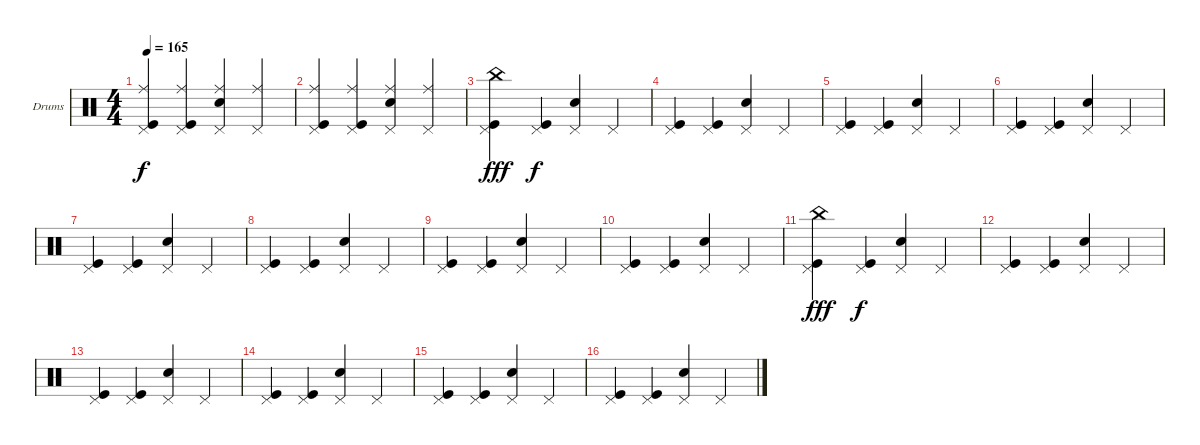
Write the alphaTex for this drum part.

\bracketExtendMode groupsimilarinstruments
\firstSystemTrackNameOrientation horizontal
\otherSystemsTrackNameOrientation horizontal
\track ("Drumkit" "Drums") {instrument percussion}
\staff {score}
\articulation defaults
\ts (4 4)
\tempo 165
\clef neutral
\ks c
("Pedal Hi-Hat (hit)" "Kick (hit)" "Ride (middle)").4{dy f} ("Pedal Hi-Hat (hit)" "Kick (hit)" "Ride (middle)").4 ("Pedal Hi-Hat (hit)" "Snare (hit) 2" "Ride (middle)").4 ("Pedal Hi-Hat (hit)" "Ride (middle)").4 |
("Pedal Hi-Hat (hit)" "Kick (hit)" "Ride (middle)").4 ("Pedal Hi-Hat (hit)" "Kick (hit)" "Ride (middle)").4 ("Pedal Hi-Hat (hit)" "Snare (hit) 2" "Ride (middle)").4 ("Pedal Hi-Hat (hit)" "Ride (middle)").4 |
("Pedal Hi-Hat (hit)" "Kick (hit)" "China (hit)").4{dy fff} ("Pedal Hi-Hat (hit)" "Kick (hit)").4{dy f} ("Pedal Hi-Hat (hit)" "Snare (hit) 2").4 "Pedal Hi-Hat (hit)".4 |
("Pedal Hi-Hat (hit)" "Kick (hit)").4 ("Pedal Hi-Hat (hit)" "Kick (hit)").4 ("Pedal Hi-Hat (hit)" "Snare (hit) 2").4 "Pedal Hi-Hat (hit)".4 |
("Pedal Hi-Hat (hit)" "Kick (hit)").4 ("Pedal Hi-Hat (hit)" "Kick (hit)").4 ("Pedal Hi-Hat (hit)" "Snare (hit) 2").4 "Pedal Hi-Hat (hit)".4 |
("Pedal Hi-Hat (hit)" "Kick (hit)").4 ("Pedal Hi-Hat (hit)" "Kick (hit)").4 ("Pedal Hi-Hat (hit)" "Snare (hit) 2").4 "Pedal Hi-Hat (hit)".4 |
("Pedal Hi-Hat (hit)" "Kick (hit)").4 ("Pedal Hi-Hat (hit)" "Kick (hit)").4 ("Pedal Hi-Hat (hit)" "Snare (hit) 2").4 "Pedal Hi-Hat (hit)".4 |
("Pedal Hi-Hat (hit)" "Kick (hit)").4 ("Pedal Hi-Hat (hit)" "Kick (hit)").4 ("Pedal Hi-Hat (hit)" "Snare (hit) 2").4 "Pedal Hi-Hat (hit)".4 |
("Pedal Hi-Hat (hit)" "Kick (hit)").4 ("Pedal Hi-Hat (hit)" "Kick (hit)").4 ("Pedal Hi-Hat (hit)" "Snare (hit) 2").4 "Pedal Hi-Hat (hit)".4 |
("Pedal Hi-Hat (hit)" "Kick (hit)").4 ("Pedal Hi-Hat (hit)" "Kick (hit)").4 ("Pedal Hi-Hat (hit)" "Snare (hit) 2").4 "Pedal Hi-Hat (hit)".4 |
("Pedal Hi-Hat (hit)" "Kick (hit)" "China (hit)").4{dy fff} ("Pedal Hi-Hat (hit)" "Kick (hit)").4{dy f} ("Pedal Hi-Hat (hit)" "Snare (hit) 2").4 "Pedal Hi-Hat (hit)".4 |
("Pedal Hi-Hat (hit)" "Kick (hit)").4 ("Pedal Hi-Hat (hit)" "Kick (hit)").4 ("Pedal Hi-Hat (hit)" "Snare (hit) 2").4 "Pedal Hi-Hat (hit)".4 |
("Pedal Hi-Hat (hit)" "Kick (hit)").4 ("Pedal Hi-Hat (hit)" "Kick (hit)").4 ("Pedal Hi-Hat (hit)" "Snare (hit) 2").4 "Pedal Hi-Hat (hit)".4 |
("Pedal Hi-Hat (hit)" "Kick (hit)").4 ("Pedal Hi-Hat (hit)" "Kick (hit)").4 ("Pedal Hi-Hat (hit)" "Snare (hit) 2").4 "Pedal Hi-Hat (hit)".4 |
("Pedal Hi-Hat (hit)" "Kick (hit)").4 ("Pedal Hi-Hat (hit)" "Kick (hit)").4 ("Pedal Hi-Hat (hit)" "Snare (hit) 2").4 "Pedal Hi-Hat (hit)".4 |
("Pedal Hi-Hat (hit)" "Kick (hit)").4 ("Pedal Hi-Hat (hit)" "Kick (hit)").4 ("Pedal Hi-Hat (hit)" "Snare (hit) 2").4 "Pedal Hi-Hat (hit)".4
